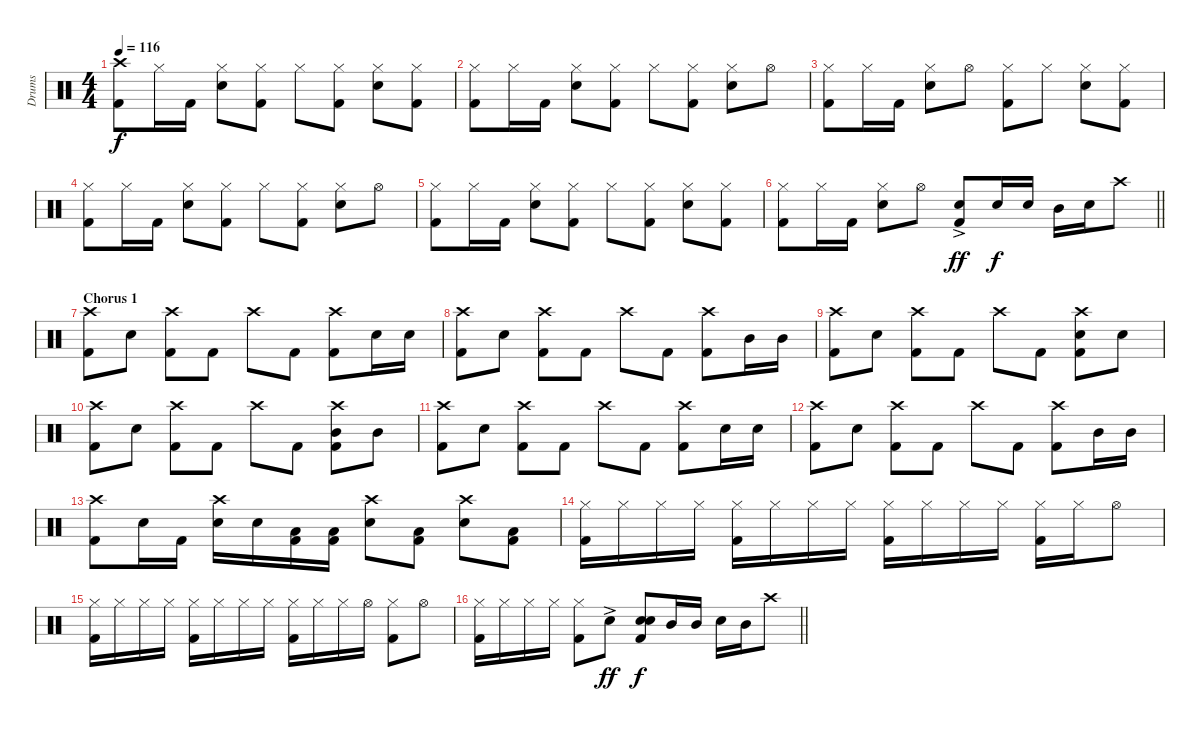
\track ("Drums" "Drums") {instrument percussion}
\staff {score}
\articulation defaults
\ts (4 4)
\tempo 116
\clef neutral
\ks c
("Crash high (hit)" "Kick (hit) 2").8{dy f} "Hi-Hat (closed)".16 "Kick (hit) 2".16 ("Hi-Hat (closed)" "Snare (hit) 2").8 ("Hi-Hat (closed)" "Kick (hit) 2").8 "Hi-Hat (closed)".8 ("Hi-Hat (closed)" "Kick (hit) 2").8 ("Hi-Hat (closed)" "Snare (hit) 2").8 ("Hi-Hat (closed)" "Kick (hit) 2").8 |
("Hi-Hat (closed)" "Kick (hit) 2").8 "Hi-Hat (closed)".16 "Kick (hit) 2".16 ("Hi-Hat (closed)" "Snare (hit) 2").8 ("Hi-Hat (closed)" "Kick (hit) 2").8 "Hi-Hat (closed)".8 ("Hi-Hat (closed)" "Kick (hit) 2").8 ("Hi-Hat (closed)" "Snare (hit) 2").8 "Hi-Hat (open)".8 |
("Hi-Hat (closed)" "Kick (hit) 2").8 "Hi-Hat (closed)".16 "Kick (hit) 2".16 ("Hi-Hat (closed)" "Snare (hit) 2").8 "Hi-Hat (open)".8 ("Hi-Hat (closed)" "Kick (hit) 2").8 "Hi-Hat (closed)".8 ("Hi-Hat (closed)" "Snare (hit) 2").8 ("Hi-Hat (closed)" "Kick (hit) 2").8 |
("Hi-Hat (closed)" "Kick (hit) 2").8 "Hi-Hat (closed)".16 "Kick (hit) 2".16 ("Hi-Hat (closed)" "Snare (hit) 2").8 ("Hi-Hat (closed)" "Kick (hit) 2").8 "Hi-Hat (closed)".8 ("Hi-Hat (closed)" "Kick (hit) 2").8 ("Hi-Hat (closed)" "Snare (hit) 2").8 "Hi-Hat (open)".8 |
("Hi-Hat (closed)" "Kick (hit) 2").8 "Hi-Hat (closed)".16 "Kick (hit) 2".16 ("Hi-Hat (closed)" "Snare (hit) 2").8 ("Hi-Hat (closed)" "Kick (hit) 2").8 "Hi-Hat (closed)".8 ("Hi-Hat (closed)" "Kick (hit) 2").8 ("Hi-Hat (closed)" "Snare (hit) 2").8 ("Hi-Hat (closed)" "Kick (hit) 2").8 |
\barLineRight lightlight
("Hi-Hat (closed)" "Kick (hit) 2").8 "Hi-Hat (closed)".16 "Kick (hit) 2".16 ("Hi-Hat (closed)" "Snare (hit) 2").8 "Hi-Hat (open)".8 ("Snare (hit) 2"{ac} "Kick (hit) 2").8{dy ff} "Snare (hit) 2".16{dy f} "Snare (hit) 2".16 "Mid Tom (hit)".16 "Snare (hit) 2".16 "Crash high (hit)".8 |
\section ("" "Chorus 1")
("Crash high (hit)" "Kick (hit) 2").8 "Snare (hit) 2".8 ("Crash high (hit)" "Kick (hit) 2").8 "Kick (hit) 2".8 "Crash high (hit)".8 "Kick (hit) 2".8 ("Crash high (hit)" "Kick (hit) 2").8 "Snare (hit) 2".16 "Snare (hit) 2".16 |
("Crash high (hit)" "Kick (hit) 2").8 "Snare (hit) 2".8 ("Crash high (hit)" "Kick (hit) 2").8 "Kick (hit) 2".8 "Crash high (hit)".8 "Kick (hit) 2".8 ("Crash high (hit)" "Kick (hit) 2").8 "Mid Tom (hit)".16 "Mid Tom (hit)".16 |
("Crash high (hit)" "Kick (hit) 2").8 "Snare (hit) 2".8 ("Crash high (hit)" "Kick (hit) 2").8 "Kick (hit) 2".8 "Crash high (hit)".8 "Kick (hit) 2".8 ("Crash high (hit)" "Snare (hit) 2" "Kick (hit) 2").8 "Snare (hit) 2".8 |
("Crash high (hit)" "Kick (hit) 2").8 "Snare (hit) 2".8 ("Crash high (hit)" "Kick (hit) 2").8 "Kick (hit) 2".8 "Crash high (hit)".8 "Kick (hit) 2".8 ("Crash high (hit)" "Mid Tom (hit)" "Kick (hit) 2").8 "Mid Tom (hit)".8 |
("Crash high (hit)" "Kick (hit) 2").8 "Snare (hit) 2".8 ("Crash high (hit)" "Kick (hit) 2").8 "Kick (hit) 2".8 "Crash high (hit)".8 "Kick (hit) 2".8 ("Crash high (hit)" "Kick (hit) 2").8 "Snare (hit) 2".16 "Snare (hit) 2".16 |
("Crash high (hit)" "Kick (hit) 2").8 "Snare (hit) 2".8 ("Crash high (hit)" "Kick (hit) 2").8 "Kick (hit) 2".8 "Crash high (hit)".8 "Kick (hit) 2".8 ("Crash high (hit)" "Kick (hit) 2").8 "Mid Tom (hit)".16 "Mid Tom (hit)".16 |
("Crash high (hit)" "Kick (hit) 2").8 "Snare (hit) 2".16 "Kick (hit) 2".16 ("Crash high (hit)" "Snare (hit) 2").16 "Snare (hit) 2".16 ("Low Floor Tom (hit)" "Kick (hit) 2").16 ("Low Floor Tom (hit)" "Kick (hit) 2").16 ("Crash high (hit)" "Snare (hit) 2").8 ("Low Floor Tom (hit)" "Kick (hit) 2").8 ("Crash high (hit)" "Snare (hit) 2").8 ("Low Floor Tom (hit)" "Kick (hit) 2").8 |
("Hi-Hat (closed)" "Kick (hit) 2").16 "Hi-Hat (closed)".16 "Hi-Hat (closed)".16 "Hi-Hat (closed)".16 ("Hi-Hat (closed)" "Kick (hit) 2").16 "Hi-Hat (closed)".16 "Hi-Hat (closed)".16 "Hi-Hat (closed)".16 ("Hi-Hat (closed)" "Kick (hit) 2").16 "Hi-Hat (closed)".16 "Hi-Hat (closed)".16 "Hi-Hat (closed)".16 ("Hi-Hat (closed)" "Kick (hit) 2").16 "Hi-Hat (closed)".16 "Hi-Hat (open)".8 |
("Hi-Hat (closed)" "Kick (hit) 2").16 "Hi-Hat (closed)".16 "Hi-Hat (closed)".16 "Hi-Hat (closed)".16 ("Hi-Hat (closed)" "Kick (hit) 2").16 "Hi-Hat (closed)".16 "Hi-Hat (closed)".16 "Hi-Hat (closed)".16 ("Hi-Hat (closed)" "Kick (hit) 2").16 "Hi-Hat (closed)".16 "Hi-Hat (closed)".16 "Hi-Hat (open)".16 ("Hi-Hat (closed)" "Kick (hit) 2").8 "Hi-Hat (open)".8 |
\barLineRight lightlight
("Hi-Hat (closed)" "Kick (hit) 2").16 "Hi-Hat (closed)".16 "Hi-Hat (closed)".16 "Hi-Hat (closed)".16 ("Hi-Hat (closed)" "Kick (hit) 2").8 "Snare (hit) 2"{ac}.8{dy ff} ("Snare (hit) 2" "Snare (hit) 2" "Kick (hit) 2").8{dy f} "Mid Tom (hit)".16 "Mid Tom (hit)".16 "Snare (hit) 2".16 "Mid Tom (hit)".16 "Crash high (hit)".8
